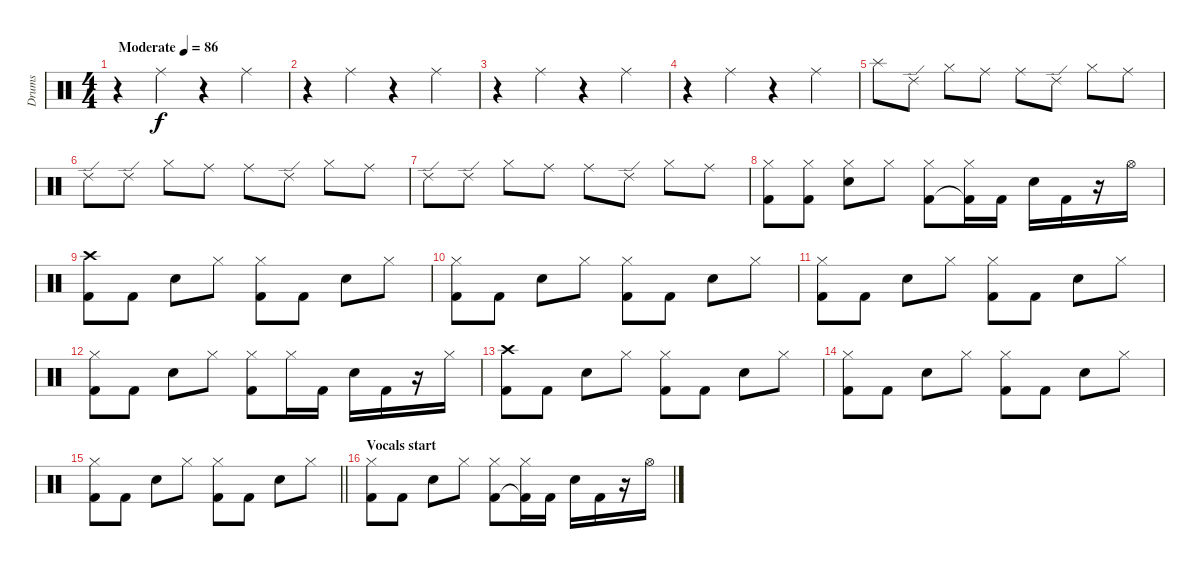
\track ("Drums" "Drums") {instrument percussion}
\staff {score}
\articulation defaults
\ts (4 4)
\tempo (86 "Moderate")
\clef neutral
\ks aminor
r.4{dy f} "Ride (middle)".4 r.4 "Ride (middle)".4 |
r.4 "Ride (middle)".4 r.4 "Ride (middle)".4 |
r.4 "Ride (middle)".4 r.4 "Ride (middle)".4 |
r.4 "Ride (middle)".4 r.4 "Ride (middle)".4 |
"Splash (hit)".8 "Ride (edge) 2".8 "Hi-Hat (closed)".8 "Ride (middle)".8 "Ride (middle)".8 "Ride (edge) 2".8 "Hi-Hat (closed)".8 "Ride (middle)".8 |
"Ride (edge) 2".8 "Ride (edge) 2".8 "Hi-Hat (closed)".8 "Ride (middle)".8 "Ride (middle)".8 "Ride (edge) 2".8 "Hi-Hat (closed)".8 "Ride (middle)".8 |
"Ride (edge) 2".8 "Ride (edge) 2".8 "Hi-Hat (closed)".8 "Ride (middle)".8 "Ride (middle)".8 "Ride (edge) 2".8 "Hi-Hat (closed)".8 "Ride (middle)".8 |
("Hi-Hat (closed)" "Kick (hit) 2").8 ("Hi-Hat (closed)" "Kick (hit) 2").8 ("Hi-Hat (closed)" "Snare (hit) 2").8 "Hi-Hat (closed)".8 ("Hi-Hat (closed)" "Kick (hit) 2").8 ("Hi-Hat (closed)" "Kick (hit) 2"{t}).16 "Kick (hit) 2".16 "Snare (hit) 2".16 "Kick (hit) 2".16 r.16 "Hi-Hat (open)".16 |
("Crash high (hit)" "Kick (hit) 2").8 "Kick (hit) 2".8 "Snare (hit) 2".8 "Hi-Hat (closed)".8 ("Hi-Hat (closed)" "Kick (hit) 2").8 "Kick (hit) 2".8 "Snare (hit) 2".8 "Hi-Hat (closed)".8 |
("Hi-Hat (closed)" "Kick (hit) 2").8 "Kick (hit) 2".8 "Snare (hit) 2".8 "Hi-Hat (closed)".8 ("Hi-Hat (closed)" "Kick (hit) 2").8 "Kick (hit) 2".8 "Snare (hit) 2".8 "Hi-Hat (closed)".8 |
("Hi-Hat (closed)" "Kick (hit) 2").8 "Kick (hit) 2".8 "Snare (hit) 2".8 "Hi-Hat (closed)".8 ("Hi-Hat (closed)" "Kick (hit) 2").8 "Kick (hit) 2".8 "Snare (hit) 2".8 "Hi-Hat (closed)".8 |
("Hi-Hat (closed)" "Kick (hit) 2").8 "Kick (hit) 2".8 "Snare (hit) 2".8 "Hi-Hat (closed)".8 ("Hi-Hat (closed)" "Kick (hit) 2").8 "Hi-Hat (closed)".16 "Kick (hit) 2".16 "Snare (hit) 2".16 "Kick (hit) 2".16 r.16 "Hi-Hat (closed)".16 |
("Crash high (hit)" "Kick (hit) 2").8 "Kick (hit) 2".8 "Snare (hit) 2".8 "Hi-Hat (closed)".8 ("Hi-Hat (closed)" "Kick (hit) 2").8 "Kick (hit) 2".8 "Snare (hit) 2".8 "Hi-Hat (closed)".8 |
("Hi-Hat (closed)" "Kick (hit) 2").8 "Kick (hit) 2".8 "Snare (hit) 2".8 "Hi-Hat (closed)".8 ("Hi-Hat (closed)" "Kick (hit) 2").8 "Kick (hit) 2".8 "Snare (hit) 2".8 "Hi-Hat (closed)".8 |
\barLineRight lightlight
("Hi-Hat (closed)" "Kick (hit) 2").8 "Kick (hit) 2".8 "Snare (hit) 2".8 "Hi-Hat (closed)".8 ("Hi-Hat (closed)" "Kick (hit) 2").8 "Kick (hit) 2".8 "Snare (hit) 2".8 "Hi-Hat (closed)".8 |
\section ("" "Vocals start")
("Hi-Hat (closed)" "Kick (hit) 2").8 "Kick (hit) 2".8 "Snare (hit) 2".8 "Hi-Hat (closed)".8 ("Hi-Hat (closed)" "Kick (hit) 2").8 ("Hi-Hat (closed)" "Kick (hit) 2"{t}).16 "Kick (hit) 2".16 "Snare (hit) 2".16 "Kick (hit) 2".16 r.16 "Hi-Hat (open)".16
